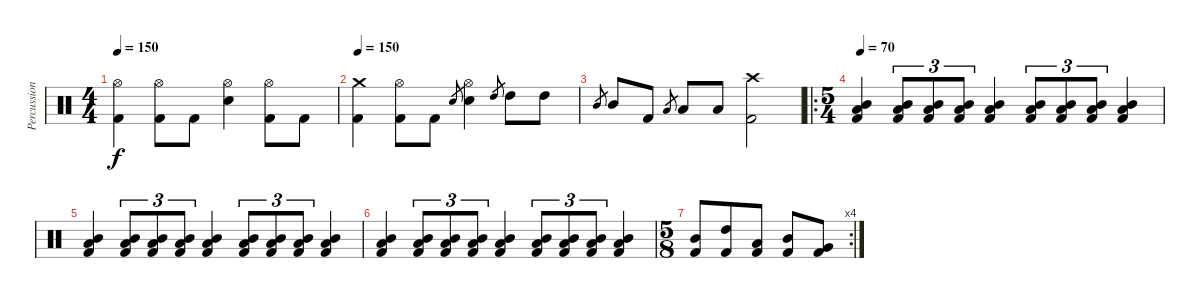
\track ("Percussions" "Percussion") {instrument percussion}
\staff {score}
\articulation defaults
\ts (4 4)
\tempo 150
\clef neutral
\ks c
("Hi-Hat (open)" "Kick (hit) 2").4{dy f} ("Hi-Hat (open)" "Kick (hit) 2").8 "Kick (hit) 2".8 ("Hi-Hat (open)" "Electric Snare (hit)").4 ("Hi-Hat (open)" "Kick (hit) 2").8 "Kick (hit) 2".8 |
\tempo 150
("Crash medium (hit)" "Kick (hit) 2").4 ("Hi-Hat (open)" "Kick (hit) 2").8 "Kick (hit) 2".8 "Electric Snare (hit)".8{gr} ("Hi-Hat (open)" "Electric Snare (hit)").4 "High Tom (hit)".8{gr} "High Tom (hit)".8 "High Tom (hit)".8 |
"Mid Tom (hit)".8{gr} "Mid Tom (hit)".8 "Kick (hit) 2".8 "Low Tom (hit)".8{gr} "Low Tom (hit)".8 "Low Tom (hit)".8 ("Crash high (hit)" "Kick (hit) 2").2 |
\ro
\ts (5 4)
\tempo 80
\tempo 70
("Low Tom (hit)" "Mid Tom (hit)" "Kick (hit) 2").4 ("Low Tom (hit)" "Mid Tom (hit)" "Kick (hit) 2").8{tu (3 2)} ("Low Tom (hit)" "Mid Tom (hit)" "Kick (hit) 2").8{tu (3 2)} ("Low Tom (hit)" "Mid Tom (hit)" "Kick (hit) 2").8{tu (3 2)} ("Low Tom (hit)" "Mid Tom (hit)" "Kick (hit) 2").4 ("Low Tom (hit)" "Mid Tom (hit)" "Kick (hit) 2").8{tu (3 2)} ("Low Tom (hit)" "Mid Tom (hit)" "Kick (hit) 2").8{tu (3 2)} ("Low Tom (hit)" "Mid Tom (hit)" "Kick (hit) 2").8{tu (3 2)} ("Low Tom (hit)" "Mid Tom (hit)" "Kick (hit) 2").4 |
("Low Tom (hit)" "Mid Tom (hit)" "Kick (hit) 2").4 ("Low Tom (hit)" "Mid Tom (hit)" "Kick (hit) 2").8{tu (3 2)} ("Low Tom (hit)" "Mid Tom (hit)" "Kick (hit) 2").8{tu (3 2)} ("Low Tom (hit)" "Mid Tom (hit)" "Kick (hit) 2").8{tu (3 2)} ("Low Tom (hit)" "Mid Tom (hit)" "Kick (hit) 2").4 ("Low Tom (hit)" "Mid Tom (hit)" "Kick (hit) 2").8{tu (3 2)} ("Low Tom (hit)" "Mid Tom (hit)" "Kick (hit) 2").8{tu (3 2)} ("Low Tom (hit)" "Mid Tom (hit)" "Kick (hit) 2").8{tu (3 2)} ("Low Tom (hit)" "Mid Tom (hit)" "Kick (hit) 2").4 |
("Low Tom (hit)" "Mid Tom (hit)" "Kick (hit) 2").4 ("Low Tom (hit)" "Mid Tom (hit)" "Kick (hit) 2").8{tu (3 2)} ("Low Tom (hit)" "Mid Tom (hit)" "Kick (hit) 2").8{tu (3 2)} ("Low Tom (hit)" "Mid Tom (hit)" "Kick (hit) 2").8{tu (3 2)} ("Low Tom (hit)" "Mid Tom (hit)" "Kick (hit) 2").4 ("Low Tom (hit)" "Mid Tom (hit)" "Kick (hit) 2").8{tu (3 2)} ("Low Tom (hit)" "Mid Tom (hit)" "Kick (hit) 2").8{tu (3 2)} ("Low Tom (hit)" "Mid Tom (hit)" "Kick (hit) 2").8{tu (3 2)} ("Low Tom (hit)" "Mid Tom (hit)" "Kick (hit) 2").4 |
\rc 4
\ts (5 8)
("Mid Tom (hit)" "Kick (hit) 2").8 ("High Tom (hit)" "Kick (hit) 2").8 ("Low Tom (hit)" "Kick (hit) 2").8 ("Mid Tom (hit)" "Kick (hit) 2").8 ("Very Low Tom (hit)" "Kick (hit) 2").8
